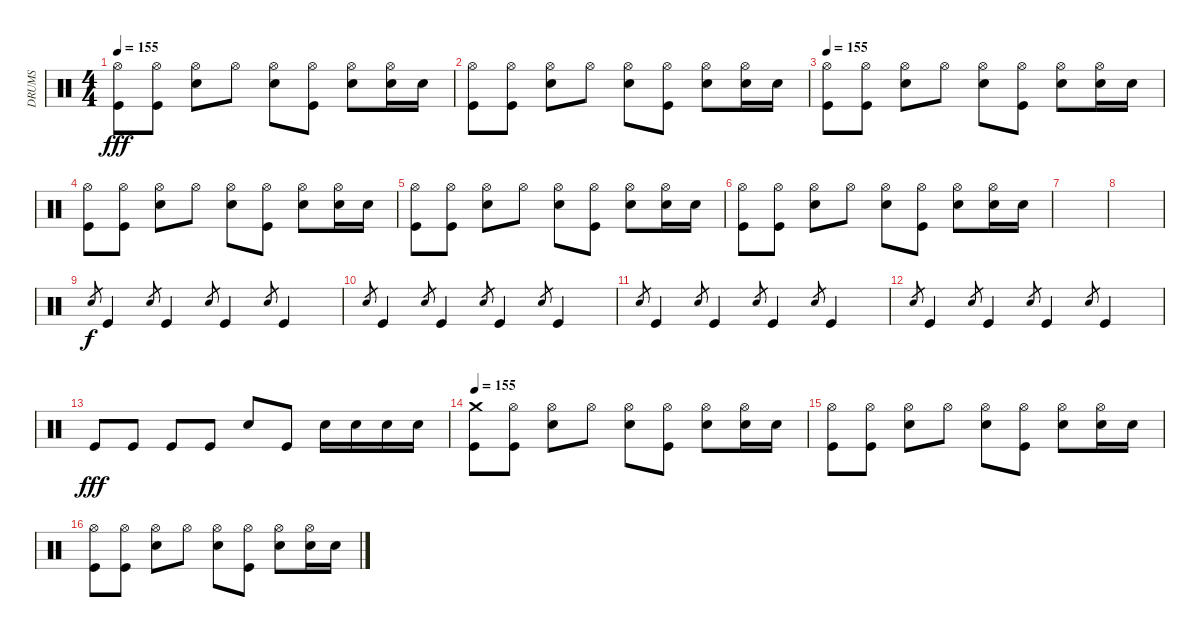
\track ("DRUMS" "DRUMS") {instrument percussion}
\staff {score}
\articulation defaults
\ts (4 4)
\tempo 155
\clef neutral
\ks c
("Kick (hit)" "Hi-Hat (open)").8{dy fff} ("Kick (hit)" "Hi-Hat (open)").8 ("Snare (hit) 2" "Hi-Hat (open)").8 "Hi-Hat (open)".8 ("Snare (hit) 2" "Hi-Hat (open)").8 ("Kick (hit)" "Hi-Hat (open)").8 ("Snare (hit) 2" "Hi-Hat (open)").8 ("Snare (hit) 2" "Hi-Hat (open)").16 "Snare (hit) 2".16 |
("Kick (hit)" "Hi-Hat (open)").8 ("Kick (hit)" "Hi-Hat (open)").8 ("Snare (hit) 2" "Hi-Hat (open)").8 "Hi-Hat (open)".8 ("Snare (hit) 2" "Hi-Hat (open)").8 ("Kick (hit)" "Hi-Hat (open)").8 ("Snare (hit) 2" "Hi-Hat (open)").8 ("Snare (hit) 2" "Hi-Hat (open)").16 "Snare (hit) 2".16 |
\tempo 155
("Kick (hit)" "Hi-Hat (open)").8 ("Kick (hit)" "Hi-Hat (open)").8 ("Snare (hit) 2" "Hi-Hat (open)").8 "Hi-Hat (open)".8 ("Snare (hit) 2" "Hi-Hat (open)").8 ("Kick (hit)" "Hi-Hat (open)").8 ("Snare (hit) 2" "Hi-Hat (open)").8 ("Snare (hit) 2" "Hi-Hat (open)").16 "Snare (hit) 2".16 |
("Kick (hit)" "Hi-Hat (open)").8 ("Kick (hit)" "Hi-Hat (open)").8 ("Snare (hit) 2" "Hi-Hat (open)").8 "Hi-Hat (open)".8 ("Snare (hit) 2" "Hi-Hat (open)").8 ("Kick (hit)" "Hi-Hat (open)").8 ("Snare (hit) 2" "Hi-Hat (open)").8 ("Snare (hit) 2" "Hi-Hat (open)").16 "Snare (hit) 2".16 |
("Kick (hit)" "Hi-Hat (open)").8 ("Kick (hit)" "Hi-Hat (open)").8 ("Snare (hit) 2" "Hi-Hat (open)").8 "Hi-Hat (open)".8 ("Snare (hit) 2" "Hi-Hat (open)").8 ("Kick (hit)" "Hi-Hat (open)").8 ("Snare (hit) 2" "Hi-Hat (open)").8 ("Snare (hit) 2" "Hi-Hat (open)").16 "Snare (hit) 2".16 |
("Kick (hit)" "Hi-Hat (open)").8 ("Kick (hit)" "Hi-Hat (open)").8 ("Snare (hit) 2" "Hi-Hat (open)").8 "Hi-Hat (open)".8 ("Snare (hit) 2" "Hi-Hat (open)").8 ("Kick (hit)" "Hi-Hat (open)").8 ("Snare (hit) 2" "Hi-Hat (open)").8 ("Snare (hit) 2" "Hi-Hat (open)").16 "Snare (hit) 2".16 |
|
|
"Snare (hit) 2".8{gr dy f} "Kick (hit)".4 "Snare (hit) 2".8{gr} "Kick (hit)".4 "Snare (hit) 2".8{gr} "Kick (hit)".4 "Snare (hit) 2".8{gr} "Kick (hit)".4 |
"Snare (hit) 2".8{gr} "Kick (hit)".4 "Snare (hit) 2".8{gr} "Kick (hit)".4 "Snare (hit) 2".8{gr} "Kick (hit)".4 "Snare (hit) 2".8{gr} "Kick (hit)".4 |
"Snare (hit) 2".8{gr} "Kick (hit)".4 "Snare (hit) 2".8{gr} "Kick (hit)".4 "Snare (hit) 2".8{gr} "Kick (hit)".4 "Snare (hit) 2".8{gr} "Kick (hit)".4 |
"Snare (hit) 2".8{gr} "Kick (hit)".4 "Snare (hit) 2".8{gr} "Kick (hit)".4 "Snare (hit) 2".8{gr} "Kick (hit)".4 "Snare (hit) 2".8{gr} "Kick (hit)".4 |
"Kick (hit)".8{dy fff} "Kick (hit)".8 "Kick (hit)".8 "Kick (hit)".8 "Snare (hit) 2".8 "Kick (hit)".8 "Snare (hit) 2".16 "Snare (hit) 2".16 "Snare (hit) 2".16 "Snare (hit) 2".16 |
\tempo 155
("Kick (hit)" "Crash medium (hit)").8 ("Kick (hit)" "Hi-Hat (open)").8 ("Snare (hit) 2" "Hi-Hat (open)").8 "Hi-Hat (open)".8 ("Snare (hit) 2" "Hi-Hat (open)").8 ("Kick (hit)" "Hi-Hat (open)").8 ("Snare (hit) 2" "Hi-Hat (open)").8 ("Snare (hit) 2" "Hi-Hat (open)").16 "Snare (hit) 2".16 |
("Kick (hit)" "Hi-Hat (open)").8 ("Kick (hit)" "Hi-Hat (open)").8 ("Snare (hit) 2" "Hi-Hat (open)").8 "Hi-Hat (open)".8 ("Snare (hit) 2" "Hi-Hat (open)").8 ("Kick (hit)" "Hi-Hat (open)").8 ("Snare (hit) 2" "Hi-Hat (open)").8 ("Snare (hit) 2" "Hi-Hat (open)").16 "Snare (hit) 2".16 |
("Kick (hit)" "Hi-Hat (open)").8 ("Kick (hit)" "Hi-Hat (open)").8 ("Snare (hit) 2" "Hi-Hat (open)").8 "Hi-Hat (open)".8 ("Snare (hit) 2" "Hi-Hat (open)").8 ("Kick (hit)" "Hi-Hat (open)").8 ("Snare (hit) 2" "Hi-Hat (open)").8 ("Snare (hit) 2" "Hi-Hat (open)").16 "Snare (hit) 2".16
